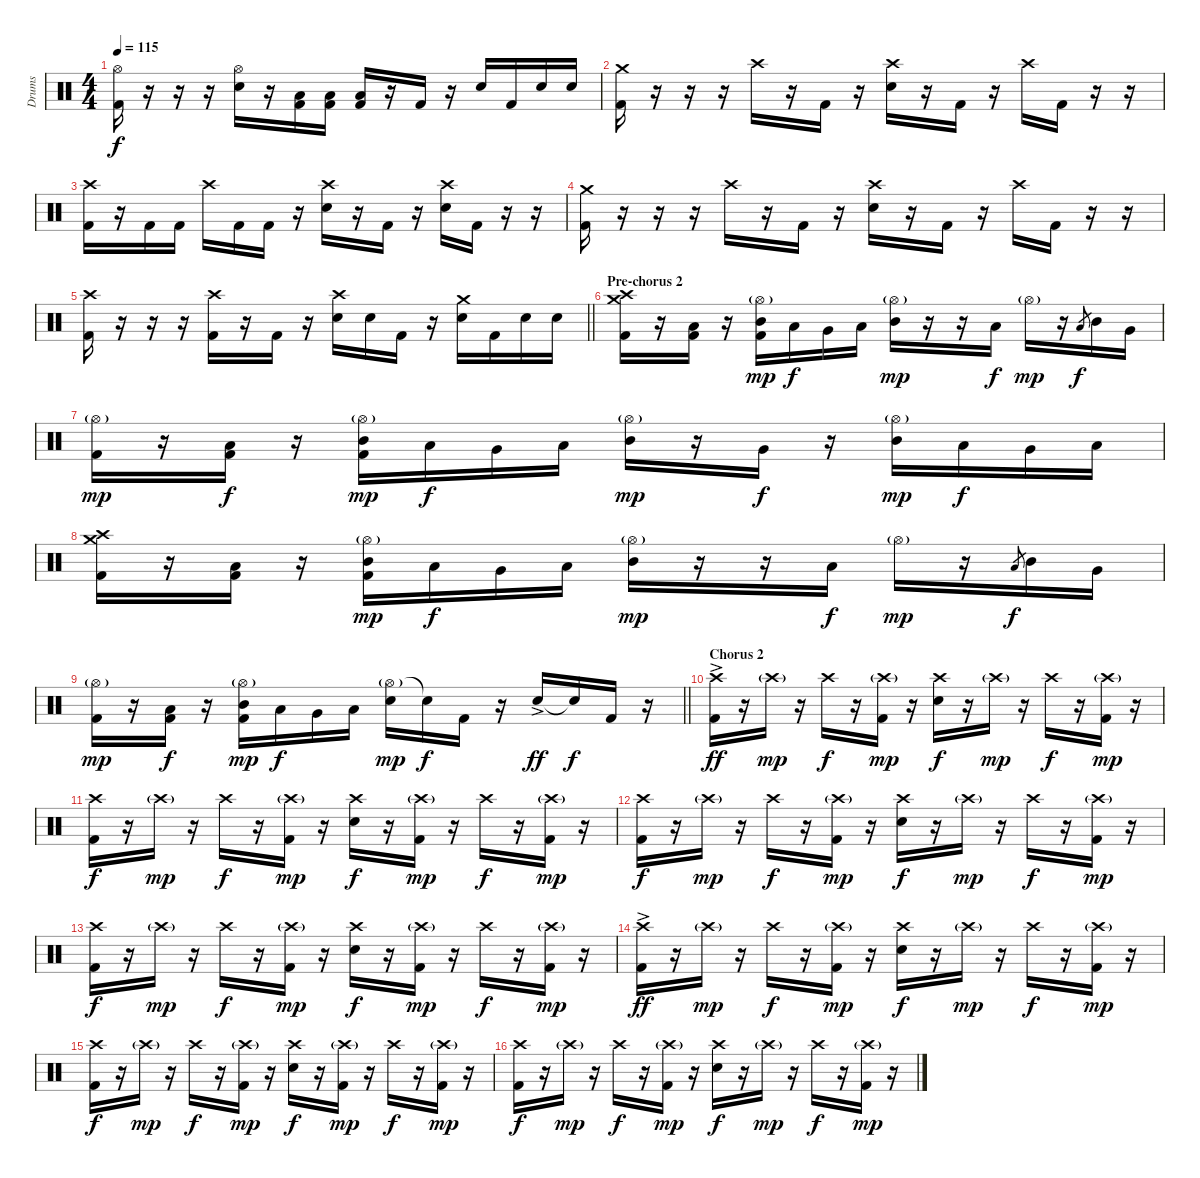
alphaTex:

\track ("Drums" "Drums") {instrument percussion}
\staff {score}
\articulation defaults
\ts (4 4)
\tempo 115
\clef neutral
\ks c
("Hi-Hat (open)" "Kick (hit) 2").16{dy f} r.16 r.16 r.16 ("Hi-Hat (open)" "Electric Snare (hit)").16 r.16 ("Low Tom (hit)" "Kick (hit) 2").16 ("Low Tom (hit)" "Kick (hit) 2").16 ("Low Tom (hit)" "Kick (hit) 2").16 r.16 "Kick (hit) 2".16 r.16 "Electric Snare (hit)".16 "Kick (hit) 2".16 "Electric Snare (hit)".16 "Electric Snare (hit)".16 |
("Crash medium (hit)" "Kick (hit) 2").16 r.16 r.16 r.16 "Crash high (hit)".16 r.16 "Kick (hit) 2".16 r.16 ("Crash high (hit)" "Electric Snare (hit)").16 r.16 "Kick (hit) 2".16 r.16 "Crash high (hit)".16 "Kick (hit) 2".16 r.16 r.16 |
("Crash high (hit)" "Kick (hit) 2").16 r.16 "Kick (hit) 2".16 "Kick (hit) 2".16 "Crash high (hit)".16 "Kick (hit) 2".16 "Kick (hit) 2".16 r.16 ("Crash high (hit)" "Electric Snare (hit)").16 r.16 "Kick (hit) 2".16 r.16 ("Crash high (hit)" "Electric Snare (hit)").16 "Kick (hit) 2".16 r.16 r.16 |
("Crash medium (hit)" "Kick (hit) 2").16 r.16 r.16 r.16 "Crash high (hit)".16 r.16 "Kick (hit) 2".16 r.16 ("Crash high (hit)" "Electric Snare (hit)").16 r.16 "Kick (hit) 2".16 r.16 "Crash high (hit)".16 "Kick (hit) 2".16 r.16 r.16 |
\barLineRight lightlight
("Crash high (hit)" "Kick (hit) 2").16 r.16 r.16 r.16 ("Crash high (hit)" "Kick (hit) 2").16 r.16 "Kick (hit) 2".16 r.16 ("Crash high (hit)" "Electric Snare (hit)").16 "Electric Snare (hit)".16 "Kick (hit) 2".16 r.16 ("Crash medium (hit)" "Electric Snare (hit)").16 "Kick (hit) 2".16 "Electric Snare (hit)".16 "Electric Snare (hit)".16 |
\section ("" "Pre-chorus 2")
("Crash high (hit)" "Crash medium (hit)" "Kick (hit) 2").16 r.16 ("Low Tom (hit)" "Kick (hit) 2").16 r.16 ("Hi-Hat (open)"{g} "Mid Tom (hit)" "Kick (hit) 2").16{dy mp} "Low Tom (hit)".16{dy f} "Very Low Tom (hit)".16 "Low Tom (hit)".16 ("Hi-Hat (open)"{g} "Mid Tom (hit)").16{dy mp} r.16 r.16 "Low Tom (hit)".16{dy f} "Hi-Hat (open)"{g}.16{dy mp} r.16 "Low Tom (hit)".8{gr dy f} "Mid Tom (hit)".16 "Very Low Tom (hit)".16 |
("Hi-Hat (open)"{g} "Kick (hit) 2").16{dy mp} r.16 ("Low Tom (hit)" "Kick (hit) 2").16{dy f} r.16 ("Hi-Hat (open)"{g} "Mid Tom (hit)" "Kick (hit) 2").16{dy mp} "Low Tom (hit)".16{dy f} "Very Low Tom (hit)".16 "Low Tom (hit)".16 ("Hi-Hat (open)"{g} "Mid Tom (hit)").16{dy mp} r.16 "Very Low Tom (hit)".16{dy f} r.16 ("Hi-Hat (open)"{g} "Mid Tom (hit)").16{dy mp} "Low Tom (hit)".16{dy f} "Very Low Tom (hit)".16 "Low Floor Tom (hit)".16 |
("Crash high (hit)" "Crash medium (hit)" "Kick (hit) 2").16 r.16 ("Low Tom (hit)" "Kick (hit) 2").16 r.16 ("Hi-Hat (open)"{g} "Mid Tom (hit)" "Kick (hit) 2").16{dy mp} "Low Tom (hit)".16{dy f} "Very Low Tom (hit)".16 "Low Tom (hit)".16 ("Hi-Hat (open)"{g} "Mid Tom (hit)").16{dy mp} r.16 r.16 "Low Tom (hit)".16{dy f} "Hi-Hat (open)"{g}.16{dy mp} r.16 "Low Tom (hit)".8{gr dy f} "Mid Tom (hit)".16 "Very Low Tom (hit)".16 |
\barLineRight lightlight
("Hi-Hat (open)"{g} "Kick (hit) 2").16{dy mp} r.16 ("Low Tom (hit)" "Kick (hit) 2").16{dy f} r.16 ("Hi-Hat (open)"{g} "Mid Tom (hit)" "Kick (hit) 2").16{dy mp} "Low Tom (hit)".16{dy f} "Very Low Tom (hit)".16 "Low Tom (hit)".16 ("Hi-Hat (open)"{g} "Electric Snare (hit)").16{dy mp} "Electric Snare (hit)"{t}.16{dy f} "Kick (hit) 2".16 r.16 "Electric Snare (hit)"{ac}.16{dy ff} "Snare (hit)"{t}.16{dy f} "Kick (hit) 2".16 r.16 |
\section ("" "Chorus 2")
("Crash high (hit)"{ac} "Kick (hit) 2").16{dy ff} r.16 "Crash high (hit)"{g}.16{dy mp} r.16 "Crash high (hit)".16{dy f} r.16 ("Crash high (hit)"{g} "Kick (hit) 2").16{dy mp} r.16 ("Crash high (hit)" "Electric Snare (hit)").16{dy f} r.16 "Crash high (hit)"{g}.16{dy mp} r.16 "Crash high (hit)".16{dy f} r.16 ("Crash high (hit)"{g} "Kick (hit) 2").16{dy mp} r.16 |
("Crash high (hit)" "Kick (hit) 2").16{dy f} r.16 "Crash high (hit)"{g}.16{dy mp} r.16 "Crash high (hit)".16{dy f} r.16 ("Crash high (hit)"{g} "Kick (hit) 2").16{dy mp} r.16 ("Crash high (hit)" "Electric Snare (hit)").16{dy f} r.16 ("Crash high (hit)"{g} "Kick (hit) 2").16{dy mp} r.16 "Crash high (hit)".16{dy f} r.16 ("Crash high (hit)"{g} "Kick (hit) 2").16{dy mp} r.16 |
("Crash high (hit)" "Kick (hit) 2").16{dy f} r.16 "Crash high (hit)"{g}.16{dy mp} r.16 "Crash high (hit)".16{dy f} r.16 ("Crash high (hit)"{g} "Kick (hit) 2").16{dy mp} r.16 ("Crash high (hit)" "Electric Snare (hit)").16{dy f} r.16 "Crash high (hit)"{g}.16{dy mp} r.16 "Crash high (hit)".16{dy f} r.16 ("Crash high (hit)"{g} "Kick (hit) 2").16{dy mp} r.16 |
("Crash high (hit)" "Kick (hit) 2").16{dy f} r.16 "Crash high (hit)"{g}.16{dy mp} r.16 "Crash high (hit)".16{dy f} r.16 ("Crash high (hit)"{g} "Kick (hit) 2").16{dy mp} r.16 ("Crash high (hit)" "Electric Snare (hit)").16{dy f} r.16 ("Crash high (hit)"{g} "Kick (hit) 2").16{dy mp} r.16 "Crash high (hit)".16{dy f} r.16 ("Crash high (hit)"{g} "Kick (hit) 2").16{dy mp} r.16 |
("Crash high (hit)"{ac} "Kick (hit) 2").16{dy ff} r.16 "Crash high (hit)"{g}.16{dy mp} r.16 "Crash high (hit)".16{dy f} r.16 ("Crash high (hit)"{g} "Kick (hit) 2").16{dy mp} r.16 ("Crash high (hit)" "Electric Snare (hit)").16{dy f} r.16 "Crash high (hit)"{g}.16{dy mp} r.16 "Crash high (hit)".16{dy f} r.16 ("Crash high (hit)"{g} "Kick (hit) 2").16{dy mp} r.16 |
("Crash high (hit)" "Kick (hit) 2").16{dy f} r.16 "Crash high (hit)"{g}.16{dy mp} r.16 "Crash high (hit)".16{dy f} r.16 ("Crash high (hit)"{g} "Kick (hit) 2").16{dy mp} r.16 ("Crash high (hit)" "Electric Snare (hit)").16{dy f} r.16 ("Crash high (hit)"{g} "Kick (hit) 2").16{dy mp} r.16 "Crash high (hit)".16{dy f} r.16 ("Crash high (hit)"{g} "Kick (hit) 2").16{dy mp} r.16 |
("Crash high (hit)" "Kick (hit) 2").16{dy f} r.16 "Crash high (hit)"{g}.16{dy mp} r.16 "Crash high (hit)".16{dy f} r.16 ("Crash high (hit)"{g} "Kick (hit) 2").16{dy mp} r.16 ("Crash high (hit)" "Electric Snare (hit)").16{dy f} r.16 "Crash high (hit)"{g}.16{dy mp} r.16 "Crash high (hit)".16{dy f} r.16 ("Crash high (hit)"{g} "Kick (hit) 2").16{dy mp} r.16
